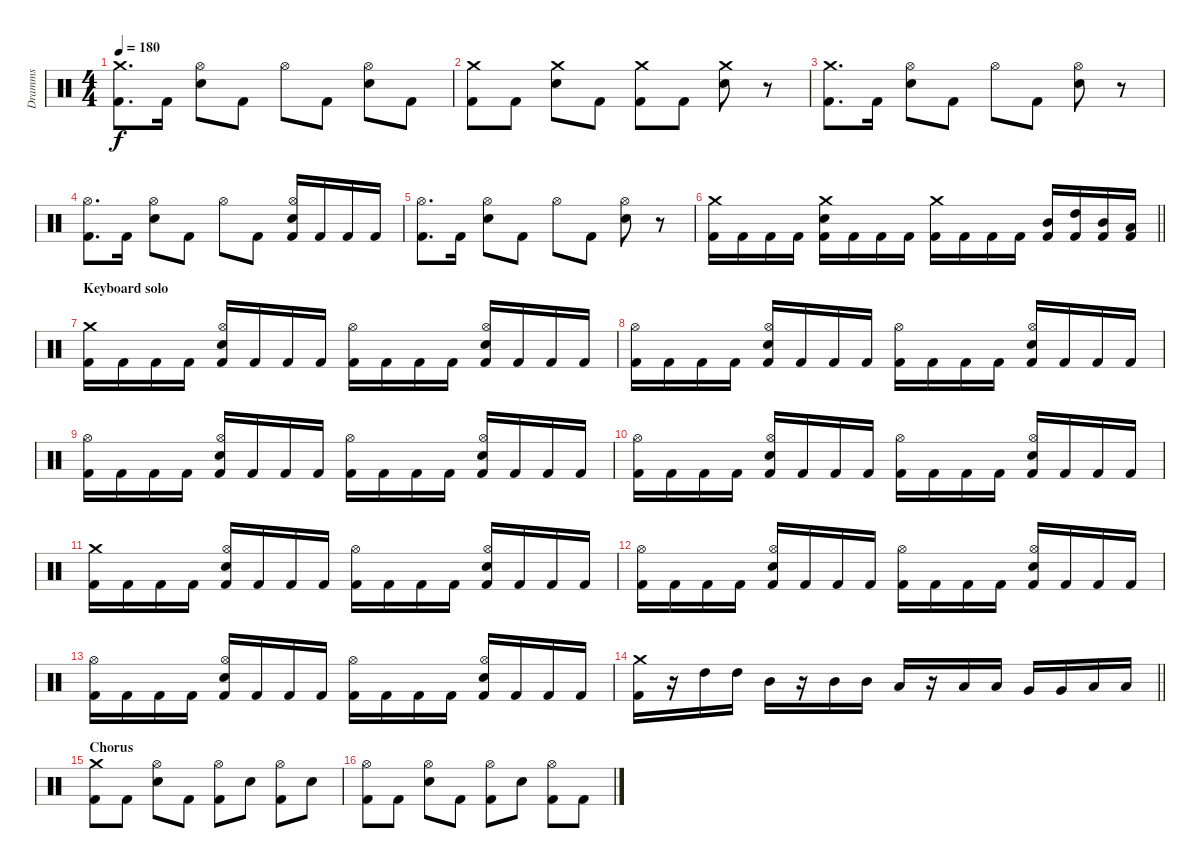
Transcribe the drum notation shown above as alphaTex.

\track ("Dramms" "Dramms") {instrument percussion}
\staff {score}
\articulation defaults
\ts (4 4)
\tempo 180
\clef neutral
\ks c
("Crash medium (hit)" "Kick (hit) 2").8{d dy f} "Kick (hit) 2".16 ("Hi-Hat (open)" "Electric Snare (hit)").8 "Kick (hit) 2".8 "Hi-Hat (open)".8 "Kick (hit) 2".8 ("Hi-Hat (open)" "Electric Snare (hit)").8 "Kick (hit) 2".8 |
("Crash medium (hit)" "Kick (hit) 2").8 "Kick (hit) 2".8 ("Crash medium (hit)" "Electric Snare (hit)").8 "Kick (hit) 2".8 ("Crash medium (hit)" "Kick (hit) 2").8 "Kick (hit) 2".8 ("Crash medium (hit)" "Electric Snare (hit)").8 r.8 |
("Crash medium (hit)" "Kick (hit) 2").8{d} "Kick (hit) 2".16 ("Hi-Hat (open)" "Electric Snare (hit)").8 "Kick (hit) 2".8 "Hi-Hat (open)".8 "Kick (hit) 2".8 ("Hi-Hat (open)" "Electric Snare (hit)").8 r.8 |
("Hi-Hat (open)" "Kick (hit) 2").8{d} "Kick (hit) 2".16 ("Hi-Hat (open)" "Electric Snare (hit)").8 "Kick (hit) 2".8 "Hi-Hat (open)".8 "Kick (hit) 2".8 ("Hi-Hat (open)" "Electric Snare (hit)" "Kick (hit) 2").16 "Kick (hit) 2".16 "Kick (hit) 2".16 "Kick (hit) 2".16 |
("Hi-Hat (open)" "Kick (hit) 2").8{d} "Kick (hit) 2".16 ("Hi-Hat (open)" "Electric Snare (hit)").8 "Kick (hit) 2".8 "Hi-Hat (open)".8 "Kick (hit) 2".8 ("Hi-Hat (open)" "Electric Snare (hit)").8 r.8 |
\barLineRight lightlight
("Crash medium (hit)" "Kick (hit) 2").16 "Kick (hit) 2".16 "Kick (hit) 2".16 "Kick (hit) 2".16 ("Crash medium (hit)" "Electric Snare (hit)" "Kick (hit) 2").16 "Kick (hit) 2".16 "Kick (hit) 2".16 "Kick (hit) 2".16 ("Crash medium (hit)" "Kick (hit) 2").16 "Kick (hit) 2".16 "Kick (hit) 2".16 "Kick (hit) 2".16 ("Mid Tom (hit)" "Kick (hit) 2").16 ("High Tom (hit)" "Kick (hit) 2").16 ("Mid Tom (hit)" "Kick (hit) 2").16 ("Low Tom (hit)" "Kick (hit) 2").16 |
\section ("" "Keyboard solo")
("Crash medium (hit)" "Kick (hit) 2").16 "Kick (hit) 2".16 "Kick (hit) 2".16 "Kick (hit) 2".16 ("Hi-Hat (open)" "Electric Snare (hit)" "Kick (hit) 2").16 "Kick (hit) 2".16 "Kick (hit) 2".16 "Kick (hit) 2".16 ("Hi-Hat (open)" "Kick (hit) 2").16 "Kick (hit) 2".16 "Kick (hit) 2".16 "Kick (hit) 2".16 ("Hi-Hat (open)" "Electric Snare (hit)" "Kick (hit) 2").16 "Kick (hit) 2".16 "Kick (hit) 2".16 "Kick (hit) 2".16 |
("Hi-Hat (open)" "Kick (hit) 2").16 "Kick (hit) 2".16 "Kick (hit) 2".16 "Kick (hit) 2".16 ("Hi-Hat (open)" "Electric Snare (hit)" "Kick (hit) 2").16 "Kick (hit) 2".16 "Kick (hit) 2".16 "Kick (hit) 2".16 ("Hi-Hat (open)" "Kick (hit) 2").16 "Kick (hit) 2".16 "Kick (hit) 2".16 "Kick (hit) 2".16 ("Hi-Hat (open)" "Electric Snare (hit)" "Kick (hit) 2").16 "Kick (hit) 2".16 "Kick (hit) 2".16 "Kick (hit) 2".16 |
("Hi-Hat (open)" "Kick (hit) 2").16 "Kick (hit) 2".16 "Kick (hit) 2".16 "Kick (hit) 2".16 ("Hi-Hat (open)" "Electric Snare (hit)" "Kick (hit) 2").16 "Kick (hit) 2".16 "Kick (hit) 2".16 "Kick (hit) 2".16 ("Hi-Hat (open)" "Kick (hit) 2").16 "Kick (hit) 2".16 "Kick (hit) 2".16 "Kick (hit) 2".16 ("Hi-Hat (open)" "Electric Snare (hit)" "Kick (hit) 2").16 "Kick (hit) 2".16 "Kick (hit) 2".16 "Kick (hit) 2".16 |
("Hi-Hat (open)" "Kick (hit) 2").16 "Kick (hit) 2".16 "Kick (hit) 2".16 "Kick (hit) 2".16 ("Hi-Hat (open)" "Electric Snare (hit)" "Kick (hit) 2").16 "Kick (hit) 2".16 "Kick (hit) 2".16 "Kick (hit) 2".16 ("Hi-Hat (open)" "Kick (hit) 2").16 "Kick (hit) 2".16 "Kick (hit) 2".16 "Kick (hit) 2".16 ("Hi-Hat (open)" "Electric Snare (hit)" "Kick (hit) 2").16 "Kick (hit) 2".16 "Kick (hit) 2".16 "Kick (hit) 2".16 |
("Crash medium (hit)" "Kick (hit) 2").16 "Kick (hit) 2".16 "Kick (hit) 2".16 "Kick (hit) 2".16 ("Hi-Hat (open)" "Electric Snare (hit)" "Kick (hit) 2").16 "Kick (hit) 2".16 "Kick (hit) 2".16 "Kick (hit) 2".16 ("Hi-Hat (open)" "Kick (hit) 2").16 "Kick (hit) 2".16 "Kick (hit) 2".16 "Kick (hit) 2".16 ("Hi-Hat (open)" "Electric Snare (hit)" "Kick (hit) 2").16 "Kick (hit) 2".16 "Kick (hit) 2".16 "Kick (hit) 2".16 |
("Hi-Hat (open)" "Kick (hit) 2").16 "Kick (hit) 2".16 "Kick (hit) 2".16 "Kick (hit) 2".16 ("Hi-Hat (open)" "Electric Snare (hit)" "Kick (hit) 2").16 "Kick (hit) 2".16 "Kick (hit) 2".16 "Kick (hit) 2".16 ("Hi-Hat (open)" "Kick (hit) 2").16 "Kick (hit) 2".16 "Kick (hit) 2".16 "Kick (hit) 2".16 ("Hi-Hat (open)" "Electric Snare (hit)" "Kick (hit) 2").16 "Kick (hit) 2".16 "Kick (hit) 2".16 "Kick (hit) 2".16 |
("Hi-Hat (open)" "Kick (hit) 2").16 "Kick (hit) 2".16 "Kick (hit) 2".16 "Kick (hit) 2".16 ("Hi-Hat (open)" "Electric Snare (hit)" "Kick (hit) 2").16 "Kick (hit) 2".16 "Kick (hit) 2".16 "Kick (hit) 2".16 ("Hi-Hat (open)" "Kick (hit) 2").16 "Kick (hit) 2".16 "Kick (hit) 2".16 "Kick (hit) 2".16 ("Hi-Hat (open)" "Electric Snare (hit)" "Kick (hit) 2").16 "Kick (hit) 2".16 "Kick (hit) 2".16 "Kick (hit) 2".16 |
\barLineRight lightlight
("Crash medium (hit)" "Kick (hit) 2").16 r.16 "High Tom (hit)".16 "High Tom (hit)".16 "Mid Tom (hit)".16 r.16 "Mid Tom (hit)".16 "Mid Tom (hit)".16 "Low Tom (hit)".16 r.16 "Low Tom (hit)".16 "Low Tom (hit)".16 "Very Low Tom (hit)".16 "Very Low Tom (hit)".16 "Low Floor Tom (hit)".16 "Low Floor Tom (hit)".16 |
\section ("" "Chorus")
("Crash medium (hit)" "Kick (hit) 2").8 "Kick (hit) 2".8 ("Hi-Hat (open)" "Electric Snare (hit)").8 "Kick (hit) 2".8 ("Hi-Hat (open)" "Kick (hit) 2").8 "Electric Snare (hit)".8 ("Hi-Hat (open)" "Kick (hit) 2").8 "Electric Snare (hit)".8 |
("Hi-Hat (open)" "Kick (hit) 2").8 "Kick (hit) 2".8 ("Hi-Hat (open)" "Electric Snare (hit)").8 "Kick (hit) 2".8 ("Hi-Hat (open)" "Kick (hit) 2").8 "Electric Snare (hit)".8 ("Hi-Hat (open)" "Kick (hit) 2").8 "Kick (hit) 2".8
